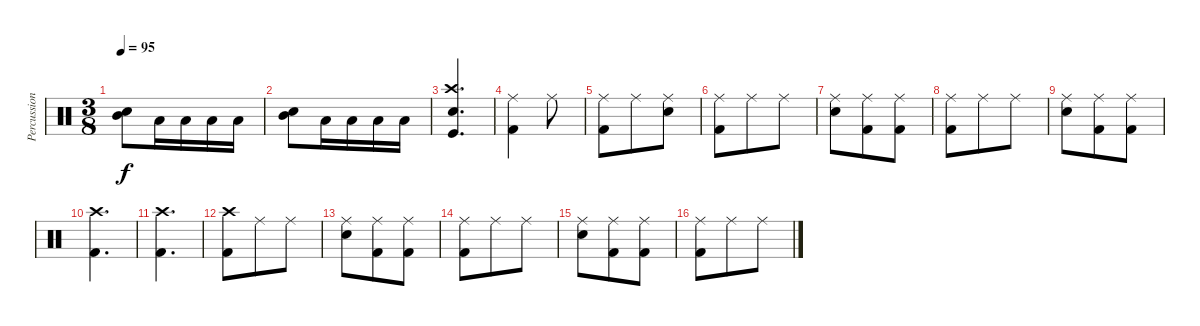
\track ("Percussion" "Percussion") {instrument percussion}
\staff {score}
\articulation defaults
\ts (3 8)
\tempo 95
\clef neutral
\ks c
("Snare (hit) 2" "Mid Tom (hit)").8{dy f} "Low Tom (hit)".16 "Low Tom (hit)".16 "Low Tom (hit)".16 "Low Tom (hit)".16 |
("Snare (hit) 2" "Mid Tom (hit)").8 "Low Tom (hit)".16 "Low Tom (hit)".16 "Low Tom (hit)".16 "Low Tom (hit)".16 |
("Crash high (hit)" "Snare (hit) 2" "Kick (hit)").4{d} |
("Ride (middle)" "Kick (hit) 2").4 "Ride (middle)".8 |
("Ride (middle)" "Kick (hit) 2").8 "Ride (middle)".8 ("Ride (middle)" "Snare (hit) 2").8 |
("Ride (middle)" "Kick (hit) 2").8 "Ride (middle)".8 "Ride (middle)".8 |
("Ride (middle)" "Snare (hit) 2").8 ("Ride (middle)" "Kick (hit) 2").8 ("Ride (middle)" "Kick (hit) 2").8 |
("Ride (middle)" "Kick (hit) 2").8 "Ride (middle)".8 "Ride (middle)".8 |
("Ride (middle)" "Snare (hit) 2").8 ("Ride (middle)" "Kick (hit) 2").8 ("Ride (middle)" "Kick (hit) 2").8 |
("Crash high (hit)" "Kick (hit) 2").4{d} |
("Crash high (hit)" "Kick (hit) 2").4{d} |
("Crash high (hit)" "Kick (hit) 2").8 "Ride (middle)".8 "Ride (middle)".8 |
("Ride (middle)" "Snare (hit) 2").8 ("Ride (middle)" "Kick (hit) 2").8 ("Ride (middle)" "Kick (hit) 2").8 |
("Ride (middle)" "Kick (hit) 2").8 "Ride (middle)".8 "Ride (middle)".8 |
("Ride (middle)" "Snare (hit) 2").8 ("Ride (middle)" "Kick (hit) 2").8 ("Ride (middle)" "Kick (hit) 2").8 |
("Ride (middle)" "Kick (hit) 2").8 "Ride (middle)".8 "Ride (middle)".8
